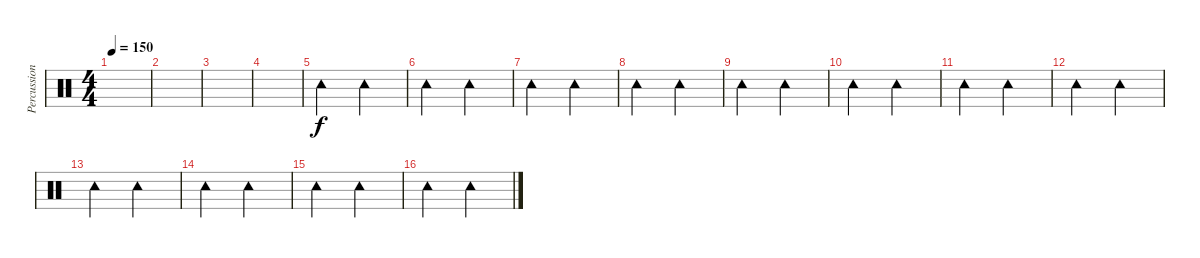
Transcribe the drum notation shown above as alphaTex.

\track ("Percussion" "Percussion") {instrument percussion}
\staff {score}
\articulation defaults
\ts (4 4)
\tempo 150
\clef neutral
\ks c
|
|
|
|
"Tambourine (hit)".2 "Tambourine (hit)".2 |
"Tambourine (hit)".2 "Tambourine (hit)".2 |
"Tambourine (hit)".2 "Tambourine (hit)".2 |
"Tambourine (hit)".2 "Tambourine (hit)".2 |
"Tambourine (hit)".2 "Tambourine (hit)".2 |
"Tambourine (hit)".2 "Tambourine (hit)".2 |
"Tambourine (hit)".2 "Tambourine (hit)".2 |
"Tambourine (hit)".2 "Tambourine (hit)".2 |
"Tambourine (hit)".2 "Tambourine (hit)".2 |
"Tambourine (hit)".2 "Tambourine (hit)".2 |
"Tambourine (hit)".2 "Tambourine (hit)".2 |
"Tambourine (hit)".2 "Tambourine (hit)".2
